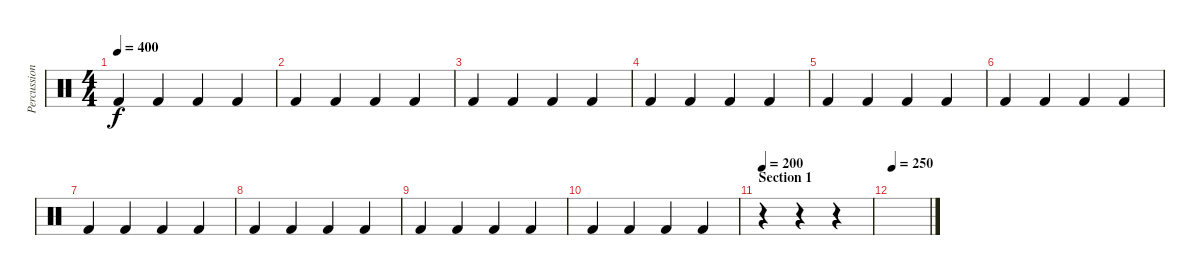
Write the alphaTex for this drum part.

\track ("Percussions" "Percussion") {instrument percussion}
\staff {score}
\articulation defaults
\ts (4 4)
\tempo 400
\clef neutral
\ks c "Kick (hit) 2".4{dy f} "Kick (hit) 2".4 "Kick (hit) 2".4 "Kick (hit) 2".4
|
"Kick (hit) 2".4 "Kick (hit) 2".4 "Kick (hit) 2".4 "Kick (hit) 2".4 |
"Kick (hit) 2".4 "Kick (hit) 2".4 "Kick (hit) 2".4 "Kick (hit) 2".4 |
"Kick (hit) 2".4 "Kick (hit) 2".4 "Kick (hit) 2".4 "Kick (hit) 2".4 |
"Kick (hit) 2".4 "Kick (hit) 2".4 "Kick (hit) 2".4 "Kick (hit) 2".4 |
"Kick (hit) 2".4 "Kick (hit) 2".4 "Kick (hit) 2".4 "Kick (hit) 2".4 |
"Kick (hit) 2".4 "Kick (hit) 2".4 "Kick (hit) 2".4 "Kick (hit) 2".4 |
"Kick (hit) 2".4 "Kick (hit) 2".4 "Kick (hit) 2".4 "Kick (hit) 2".4 |
"Kick (hit) 2".4 "Kick (hit) 2".4 "Kick (hit) 2".4 "Kick (hit) 2".4 |
"Kick (hit) 2".4 "Kick (hit) 2".4 "Kick (hit) 2".4 "Kick (hit) 2".4 |
\section ("" "Section 1")
\tempo 200
r.4 r.4 r.4 |
\tempo 250
